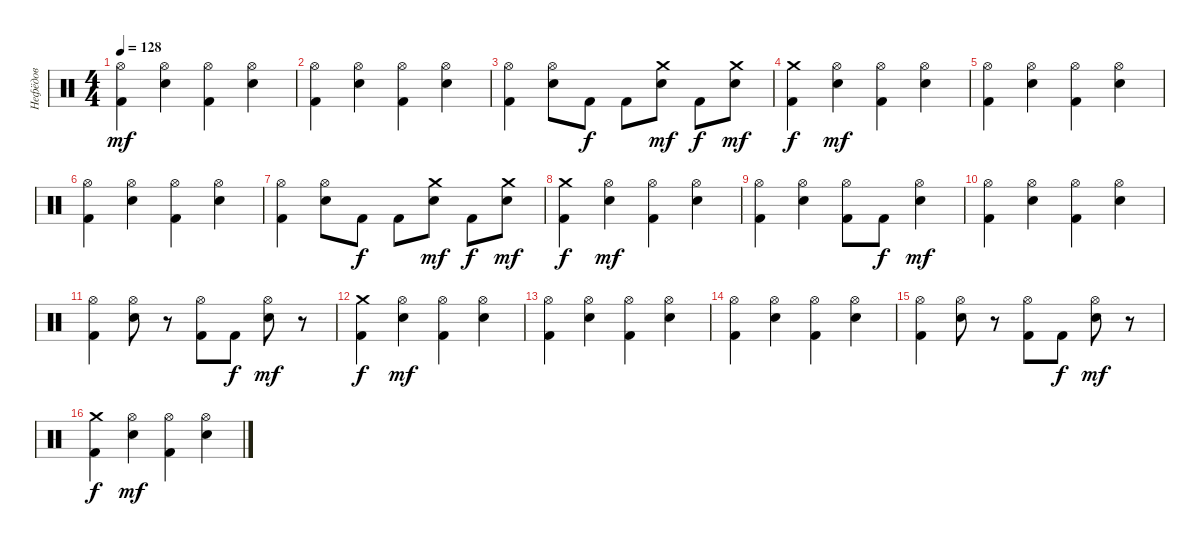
\track ("Нефёдов" "Нефёдов") {instrument percussion}
\staff {score}
\articulation defaults
\ts (4 4)
\tempo 128
\clef neutral
\ks c
("Hi-Hat (open)" "Kick (hit) 2").4{dy mf} ("Hi-Hat (open)" "Snare (hit) 2").4 ("Hi-Hat (open)" "Kick (hit) 2").4 ("Hi-Hat (open)" "Snare (hit) 2").4 |
("Hi-Hat (open)" "Kick (hit) 2").4 ("Hi-Hat (open)" "Snare (hit) 2").4 ("Hi-Hat (open)" "Kick (hit) 2").4 ("Hi-Hat (open)" "Snare (hit) 2").4 |
("Hi-Hat (open)" "Kick (hit) 2").4 ("Hi-Hat (open)" "Snare (hit) 2").8 "Kick (hit) 2".8{dy f} "Kick (hit) 2".8 ("Crash medium (hit)" "Snare (hit) 2").8{dy mf} "Kick (hit) 2".8{dy f} ("Crash medium (hit)" "Snare (hit) 2").8{dy mf} |
("Crash medium (hit)" "Kick (hit) 2").4{dy f} ("Hi-Hat (open)" "Snare (hit) 2").4{dy mf} ("Hi-Hat (open)" "Kick (hit) 2").4 ("Hi-Hat (open)" "Snare (hit) 2").4 |
("Hi-Hat (open)" "Kick (hit) 2").4 ("Hi-Hat (open)" "Snare (hit) 2").4 ("Hi-Hat (open)" "Kick (hit) 2").4 ("Hi-Hat (open)" "Snare (hit) 2").4 |
("Hi-Hat (open)" "Kick (hit) 2").4 ("Hi-Hat (open)" "Snare (hit) 2").4 ("Hi-Hat (open)" "Kick (hit) 2").4 ("Hi-Hat (open)" "Snare (hit) 2").4 |
("Hi-Hat (open)" "Kick (hit) 2").4 ("Hi-Hat (open)" "Snare (hit) 2").8 "Kick (hit) 2".8{dy f} "Kick (hit) 2".8 ("Crash medium (hit)" "Snare (hit) 2").8{dy mf} "Kick (hit) 2".8{dy f} ("Crash medium (hit)" "Snare (hit) 2").8{dy mf} |
("Crash medium (hit)" "Kick (hit) 2").4{dy f} ("Hi-Hat (open)" "Snare (hit) 2").4{dy mf} ("Hi-Hat (open)" "Kick (hit) 2").4 ("Hi-Hat (open)" "Snare (hit) 2").4 |
("Hi-Hat (open)" "Kick (hit) 2").4 ("Hi-Hat (open)" "Snare (hit) 2").4 ("Hi-Hat (open)" "Kick (hit) 2").8 "Kick (hit) 2".8{dy f} ("Hi-Hat (open)" "Snare (hit) 2").4{dy mf} |
("Hi-Hat (open)" "Kick (hit) 2").4 ("Hi-Hat (open)" "Snare (hit) 2").4 ("Hi-Hat (open)" "Kick (hit) 2").4 ("Hi-Hat (open)" "Snare (hit) 2").4 |
("Hi-Hat (open)" "Kick (hit) 2").4 ("Hi-Hat (open)" "Snare (hit) 2").8 r.8 ("Hi-Hat (open)" "Kick (hit) 2").8 "Kick (hit) 2".8{dy f} ("Hi-Hat (open)" "Snare (hit) 2").8{dy mf} r.8 |
("Crash medium (hit)" "Kick (hit) 2").4{dy f} ("Hi-Hat (open)" "Snare (hit) 2").4{dy mf} ("Hi-Hat (open)" "Kick (hit) 2").4 ("Hi-Hat (open)" "Snare (hit) 2").4 |
("Hi-Hat (open)" "Kick (hit) 2").4 ("Hi-Hat (open)" "Snare (hit) 2").4 ("Hi-Hat (open)" "Kick (hit) 2").4 ("Hi-Hat (open)" "Snare (hit) 2").4 |
("Hi-Hat (open)" "Kick (hit) 2").4 ("Hi-Hat (open)" "Snare (hit) 2").4 ("Hi-Hat (open)" "Kick (hit) 2").4 ("Hi-Hat (open)" "Snare (hit) 2").4 |
("Hi-Hat (open)" "Kick (hit) 2").4 ("Hi-Hat (open)" "Snare (hit) 2").8 r.8 ("Hi-Hat (open)" "Kick (hit) 2").8 "Kick (hit) 2".8{dy f} ("Hi-Hat (open)" "Snare (hit) 2").8{dy mf} r.8 |
("Crash medium (hit)" "Kick (hit) 2").4{dy f} ("Hi-Hat (open)" "Snare (hit) 2").4{dy mf} ("Hi-Hat (open)" "Kick (hit) 2").4 ("Hi-Hat (open)" "Snare (hit) 2").4
